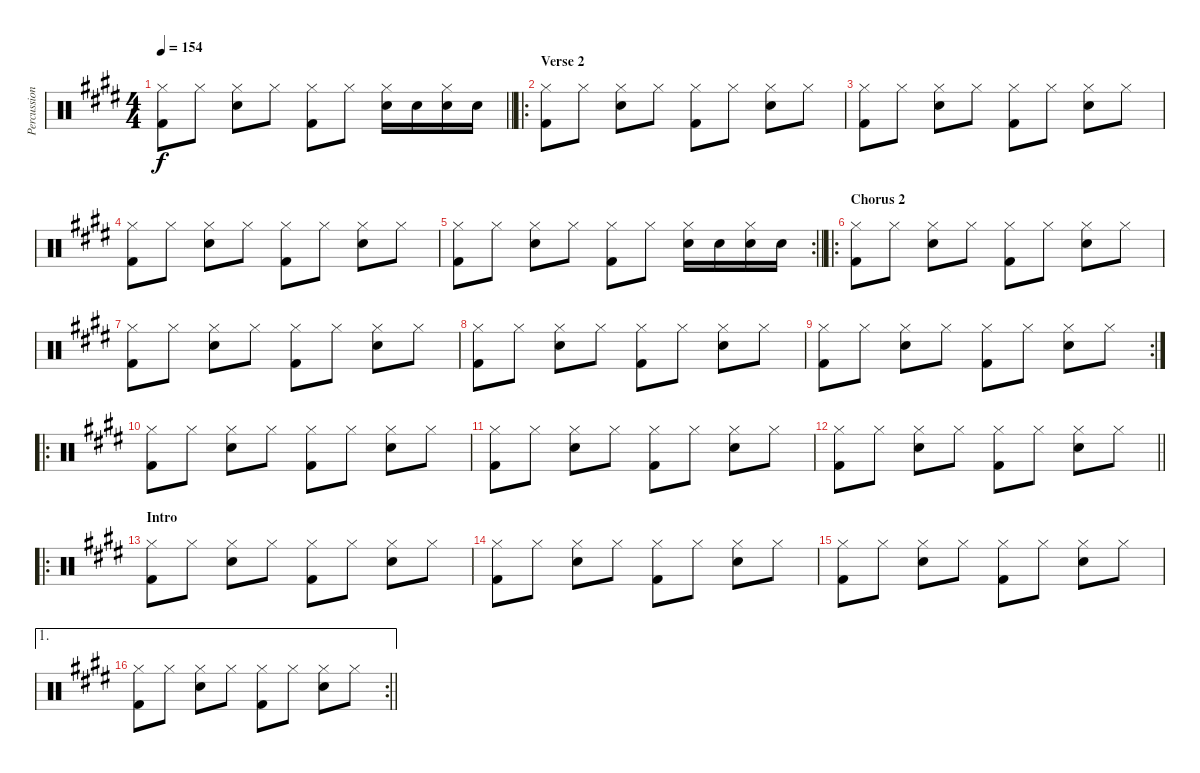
\track ("Percussion" "Percussion") {instrument percussion}
\staff {score}
\articulation defaults
\ts (4 4)
\tempo 154
\clef neutral
\barLineRight lightlight
\ks e
("Hi-Hat (closed)" "Kick (hit) 2").8{dy f} "Hi-Hat (closed)".8 ("Hi-Hat (closed)" "Snare (hit) 2").8 "Hi-Hat (closed)".8 ("Hi-Hat (closed)" "Kick (hit) 2").8 "Hi-Hat (closed)".8 ("Hi-Hat (closed)" "Snare (hit) 2").16 "Snare (hit) 2".16 ("Hi-Hat (closed)" "Snare (hit) 2").16 "Snare (hit) 2".16 |
\ro
\section ("" "Verse 2")
("Hi-Hat (closed)" "Kick (hit) 2").8 "Hi-Hat (closed)".8 ("Hi-Hat (closed)" "Snare (hit) 2").8 "Hi-Hat (closed)".8 ("Hi-Hat (closed)" "Kick (hit) 2").8 "Hi-Hat (closed)".8 ("Hi-Hat (closed)" "Snare (hit) 2").8 "Hi-Hat (closed)".8 |
("Hi-Hat (closed)" "Kick (hit) 2").8 "Hi-Hat (closed)".8 ("Hi-Hat (closed)" "Snare (hit) 2").8 "Hi-Hat (closed)".8 ("Hi-Hat (closed)" "Kick (hit) 2").8 "Hi-Hat (closed)".8 ("Hi-Hat (closed)" "Snare (hit) 2").8 "Hi-Hat (closed)".8 |
("Hi-Hat (closed)" "Kick (hit) 2").8 "Hi-Hat (closed)".8 ("Hi-Hat (closed)" "Snare (hit) 2").8 "Hi-Hat (closed)".8 ("Hi-Hat (closed)" "Kick (hit) 2").8 "Hi-Hat (closed)".8 ("Hi-Hat (closed)" "Snare (hit) 2").8 "Hi-Hat (closed)".8 |
\rc 2
\barLineRight lightlight
("Hi-Hat (closed)" "Kick (hit) 2").8 "Hi-Hat (closed)".8 ("Hi-Hat (closed)" "Snare (hit) 2").8 "Hi-Hat (closed)".8 ("Hi-Hat (closed)" "Kick (hit) 2").8 "Hi-Hat (closed)".8 ("Hi-Hat (closed)" "Snare (hit) 2").16 "Snare (hit) 2".16 ("Hi-Hat (closed)" "Snare (hit) 2").16 "Snare (hit) 2".16 |
\ro
\section ("" "Chorus 2")
("Hi-Hat (closed)" "Kick (hit) 2").8 "Hi-Hat (closed)".8 ("Hi-Hat (closed)" "Snare (hit) 2").8 "Hi-Hat (closed)".8 ("Hi-Hat (closed)" "Kick (hit) 2").8 "Hi-Hat (closed)".8 ("Hi-Hat (closed)" "Snare (hit) 2").8 "Hi-Hat (closed)".8 |
("Hi-Hat (closed)" "Kick (hit) 2").8 "Hi-Hat (closed)".8 ("Hi-Hat (closed)" "Snare (hit) 2").8 "Hi-Hat (closed)".8 ("Hi-Hat (closed)" "Kick (hit) 2").8 "Hi-Hat (closed)".8 ("Hi-Hat (closed)" "Snare (hit) 2").8 "Hi-Hat (closed)".8 |
("Hi-Hat (closed)" "Kick (hit) 2").8 "Hi-Hat (closed)".8 ("Hi-Hat (closed)" "Snare (hit) 2").8 "Hi-Hat (closed)".8 ("Hi-Hat (closed)" "Kick (hit) 2").8 "Hi-Hat (closed)".8 ("Hi-Hat (closed)" "Snare (hit) 2").8 "Hi-Hat (closed)".8 |
\rc 2
("Hi-Hat (closed)" "Kick (hit) 2").8 "Hi-Hat (closed)".8 ("Hi-Hat (closed)" "Snare (hit) 2").8 "Hi-Hat (closed)".8 ("Hi-Hat (closed)" "Kick (hit) 2").8 "Hi-Hat (closed)".8 ("Hi-Hat (closed)" "Snare (hit) 2").8 "Hi-Hat (closed)".8 |
\ro
("Hi-Hat (closed)" "Kick (hit) 2").8 "Hi-Hat (closed)".8 ("Hi-Hat (closed)" "Snare (hit) 2").8 "Hi-Hat (closed)".8 ("Hi-Hat (closed)" "Kick (hit) 2").8 "Hi-Hat (closed)".8 ("Hi-Hat (closed)" "Snare (hit) 2").8 "Hi-Hat (closed)".8 |
("Hi-Hat (closed)" "Kick (hit) 2").8 "Hi-Hat (closed)".8 ("Hi-Hat (closed)" "Snare (hit) 2").8 "Hi-Hat (closed)".8 ("Hi-Hat (closed)" "Kick (hit) 2").8 "Hi-Hat (closed)".8 ("Hi-Hat (closed)" "Snare (hit) 2").8 "Hi-Hat (closed)".8 |
\barLineRight lightlight
("Hi-Hat (closed)" "Kick (hit) 2").8 "Hi-Hat (closed)".8 ("Hi-Hat (closed)" "Snare (hit) 2").8 "Hi-Hat (closed)".8 ("Hi-Hat (closed)" "Kick (hit) 2").8 "Hi-Hat (closed)".8 ("Hi-Hat (closed)" "Snare (hit) 2").8 "Hi-Hat (closed)".8 |
\ro
\section ("" "Intro")
("Hi-Hat (closed)" "Kick (hit) 2").8 "Hi-Hat (closed)".8 ("Hi-Hat (closed)" "Snare (hit) 2").8 "Hi-Hat (closed)".8 ("Hi-Hat (closed)" "Kick (hit) 2").8 "Hi-Hat (closed)".8 ("Hi-Hat (closed)" "Snare (hit) 2").8 "Hi-Hat (closed)".8 |
("Hi-Hat (closed)" "Kick (hit) 2").8 "Hi-Hat (closed)".8 ("Hi-Hat (closed)" "Snare (hit) 2").8 "Hi-Hat (closed)".8 ("Hi-Hat (closed)" "Kick (hit) 2").8 "Hi-Hat (closed)".8 ("Hi-Hat (closed)" "Snare (hit) 2").8 "Hi-Hat (closed)".8 |
("Hi-Hat (closed)" "Kick (hit) 2").8 "Hi-Hat (closed)".8 ("Hi-Hat (closed)" "Snare (hit) 2").8 "Hi-Hat (closed)".8 ("Hi-Hat (closed)" "Kick (hit) 2").8 "Hi-Hat (closed)".8 ("Hi-Hat (closed)" "Snare (hit) 2").8 "Hi-Hat (closed)".8 |
\ae 1
\rc 2
\barLineRight lightlight
("Hi-Hat (closed)" "Kick (hit) 2").8 "Hi-Hat (closed)".8 ("Hi-Hat (closed)" "Snare (hit) 2").8 "Hi-Hat (closed)".8 ("Hi-Hat (closed)" "Kick (hit) 2").8 "Hi-Hat (closed)".8 ("Hi-Hat (closed)" "Snare (hit) 2").8 "Hi-Hat (closed)".8
